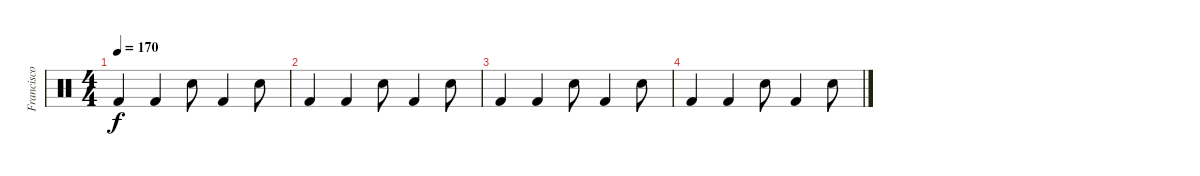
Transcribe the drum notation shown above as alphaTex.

\track ("Francisco (batería)" "Francisco ") {instrument percussion}
\staff {score}
\articulation defaults
\ts (4 4)
\tempo 170
\clef neutral
\ks c "Kick (hit) 2".4{dy f} "Kick (hit) 2".4 "Electric Snare (hit)".8 "Kick (hit) 2".4 "Electric Snare (hit)".8
|
"Kick (hit) 2".4 "Kick (hit) 2".4 "Electric Snare (hit)".8 "Kick (hit) 2".4 "Electric Snare (hit)".8 |
"Kick (hit) 2".4 "Kick (hit) 2".4 "Electric Snare (hit)".8 "Kick (hit) 2".4 "Electric Snare (hit)".8 |
"Kick (hit) 2".4 "Kick (hit) 2".4 "Electric Snare (hit)".8 "Kick (hit) 2".4 "Electric Snare (hit)".8
